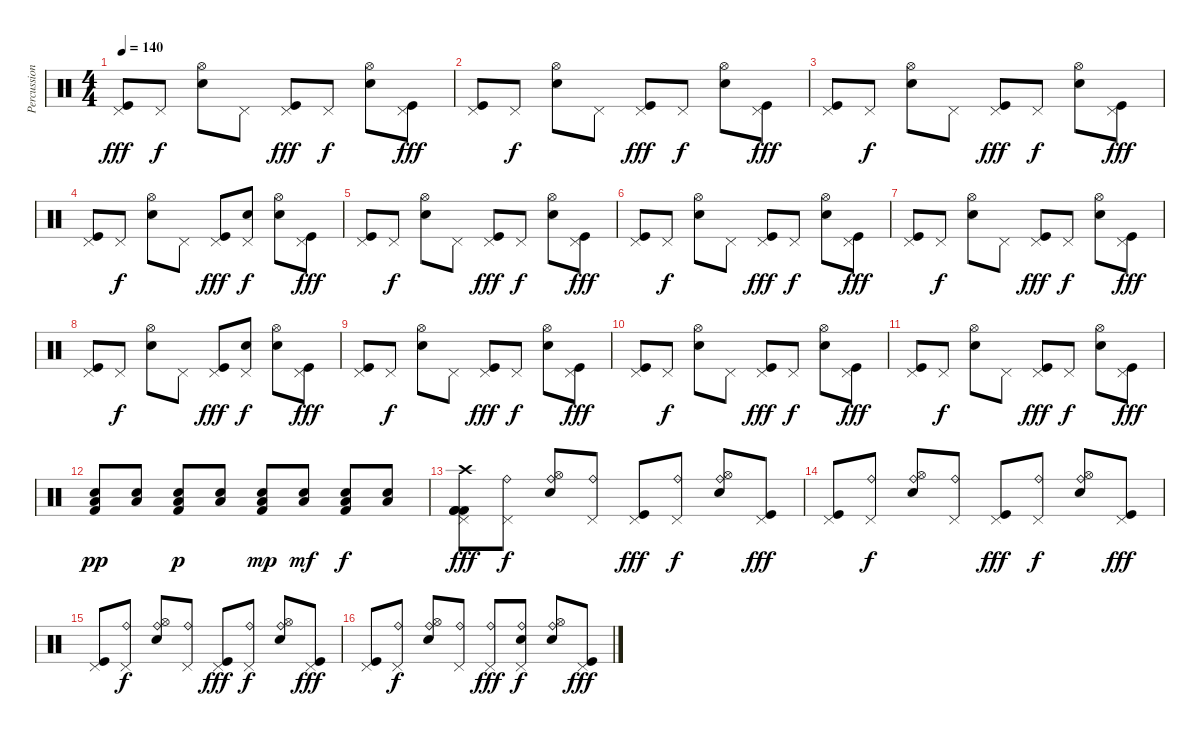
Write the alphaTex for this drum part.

\track ("Percussion" "Percussion") {instrument percussion}
\staff {score}
\articulation defaults
\ts (4 4)
\tempo 140
\clef neutral
\ks c
("Kick (hit)" "Pedal Hi-Hat (hit)").8{dy fff} "Pedal Hi-Hat (hit)".8{dy f} ("Metronome (bell)" "Hi-Hat (open)").8 "Pedal Hi-Hat (hit)".8 ("Kick (hit)" "Pedal Hi-Hat (hit)").8{dy fff} "Pedal Hi-Hat (hit)".8{dy f} ("Metronome (bell)" "Hi-Hat (open)").8 ("Kick (hit)" "Pedal Hi-Hat (hit)").8{dy fff} |
("Kick (hit)" "Pedal Hi-Hat (hit)").8 "Pedal Hi-Hat (hit)".8{dy f} ("Metronome (bell)" "Hi-Hat (open)").8 "Pedal Hi-Hat (hit)".8 ("Kick (hit)" "Pedal Hi-Hat (hit)").8{dy fff} "Pedal Hi-Hat (hit)".8{dy f} ("Metronome (bell)" "Hi-Hat (open)").8 ("Kick (hit)" "Pedal Hi-Hat (hit)").8{dy fff} |
("Kick (hit)" "Pedal Hi-Hat (hit)").8 "Pedal Hi-Hat (hit)".8{dy f} ("Metronome (bell)" "Hi-Hat (open)").8 "Pedal Hi-Hat (hit)".8 ("Kick (hit)" "Pedal Hi-Hat (hit)").8{dy fff} "Pedal Hi-Hat (hit)".8{dy f} ("Metronome (bell)" "Hi-Hat (open)").8 ("Kick (hit)" "Pedal Hi-Hat (hit)").8{dy fff} |
("Kick (hit)" "Pedal Hi-Hat (hit)").8 "Pedal Hi-Hat (hit)".8{dy f} ("Metronome (bell)" "Hi-Hat (open)").8 "Pedal Hi-Hat (hit)".8 ("Kick (hit)" "Pedal Hi-Hat (hit)").8{dy fff} ("Metronome (bell)" "Pedal Hi-Hat (hit)").8{dy f} ("Metronome (bell)" "Hi-Hat (open)").8 ("Kick (hit)" "Pedal Hi-Hat (hit)").8{dy fff} |
("Kick (hit)" "Pedal Hi-Hat (hit)").8 "Pedal Hi-Hat (hit)".8{dy f} ("Metronome (bell)" "Hi-Hat (open)").8 "Pedal Hi-Hat (hit)".8 ("Kick (hit)" "Pedal Hi-Hat (hit)").8{dy fff} "Pedal Hi-Hat (hit)".8{dy f} ("Metronome (bell)" "Hi-Hat (open)").8 ("Kick (hit)" "Pedal Hi-Hat (hit)").8{dy fff} |
("Kick (hit)" "Pedal Hi-Hat (hit)").8 "Pedal Hi-Hat (hit)".8{dy f} ("Metronome (bell)" "Hi-Hat (open)").8 "Pedal Hi-Hat (hit)".8 ("Kick (hit)" "Pedal Hi-Hat (hit)").8{dy fff} "Pedal Hi-Hat (hit)".8{dy f} ("Metronome (bell)" "Hi-Hat (open)").8 ("Kick (hit)" "Pedal Hi-Hat (hit)").8{dy fff} |
("Kick (hit)" "Pedal Hi-Hat (hit)").8 "Pedal Hi-Hat (hit)".8{dy f} ("Metronome (bell)" "Hi-Hat (open)").8 "Pedal Hi-Hat (hit)".8 ("Kick (hit)" "Pedal Hi-Hat (hit)").8{dy fff} "Pedal Hi-Hat (hit)".8{dy f} ("Metronome (bell)" "Hi-Hat (open)").8 ("Kick (hit)" "Pedal Hi-Hat (hit)").8{dy fff} |
("Kick (hit)" "Pedal Hi-Hat (hit)").8 "Pedal Hi-Hat (hit)".8{dy f} ("Metronome (bell)" "Hi-Hat (open)").8 "Pedal Hi-Hat (hit)".8 ("Kick (hit)" "Pedal Hi-Hat (hit)").8{dy fff} ("Metronome (bell)" "Pedal Hi-Hat (hit)").8{dy f} ("Metronome (bell)" "Hi-Hat (open)").8 ("Kick (hit)" "Pedal Hi-Hat (hit)").8{dy fff} |
("Kick (hit)" "Pedal Hi-Hat (hit)").8 "Pedal Hi-Hat (hit)".8{dy f} ("Metronome (bell)" "Hi-Hat (open)").8 "Pedal Hi-Hat (hit)".8 ("Kick (hit)" "Pedal Hi-Hat (hit)").8{dy fff} "Pedal Hi-Hat (hit)".8{dy f} ("Metronome (bell)" "Hi-Hat (open)").8 ("Kick (hit)" "Pedal Hi-Hat (hit)").8{dy fff} |
("Kick (hit)" "Pedal Hi-Hat (hit)").8 "Pedal Hi-Hat (hit)".8{dy f} ("Metronome (bell)" "Hi-Hat (open)").8 "Pedal Hi-Hat (hit)".8 ("Kick (hit)" "Pedal Hi-Hat (hit)").8{dy fff} "Pedal Hi-Hat (hit)".8{dy f} ("Metronome (bell)" "Hi-Hat (open)").8 ("Kick (hit)" "Pedal Hi-Hat (hit)").8{dy fff} |
("Kick (hit)" "Pedal Hi-Hat (hit)").8 "Pedal Hi-Hat (hit)".8{dy f} ("Metronome (bell)" "Hi-Hat (open)").8 "Pedal Hi-Hat (hit)".8 ("Kick (hit)" "Pedal Hi-Hat (hit)").8{dy fff} "Pedal Hi-Hat (hit)".8{dy f} ("Metronome (bell)" "Hi-Hat (open)").8 ("Kick (hit)" "Pedal Hi-Hat (hit)").8{dy fff} |
("Snare (hit) 2" "Low Tom (hit)" "Kick (hit) 2").8{dy pp} ("Snare (hit) 2" "Low Tom (hit)").8 ("Snare (hit) 2" "Low Tom (hit)" "Kick (hit) 2").8{dy p} ("Snare (hit) 2" "Low Tom (hit)").8 ("Snare (hit) 2" "Low Tom (hit)" "Kick (hit) 2").8{dy mp} ("Snare (hit) 2" "Low Tom (hit)").8{dy mf} ("Snare (hit) 2" "Low Tom (hit)" "Kick (hit) 2").8{dy f} ("Snare (hit) 2" "Low Tom (hit)").8 |
("Crash high (hit)" "Pedal Hi-Hat (hit)" "Kick (hit) 2" "Kick (hit) 2" "Kick (hit) 2").8{dy fff} ("Ride (bell)" "Pedal Hi-Hat (hit)").8{dy f} ("Ride (bell)" "Metronome (bell)" "Hi-Hat (open)").8 ("Ride (bell)" "Pedal Hi-Hat (hit)").8 ("Kick (hit)" "Pedal Hi-Hat (hit)").8{dy fff} ("Ride (bell)" "Pedal Hi-Hat (hit)").8{dy f} ("Ride (bell)" "Metronome (bell)" "Hi-Hat (open)").8 ("Kick (hit)" "Pedal Hi-Hat (hit)").8{dy fff} |
("Kick (hit)" "Pedal Hi-Hat (hit)").8 ("Ride (bell)" "Pedal Hi-Hat (hit)").8{dy f} ("Ride (bell)" "Metronome (bell)" "Hi-Hat (open)").8 ("Ride (bell)" "Pedal Hi-Hat (hit)").8 ("Kick (hit)" "Pedal Hi-Hat (hit)").8{dy fff} ("Ride (bell)" "Pedal Hi-Hat (hit)").8{dy f} ("Ride (bell)" "Metronome (bell)" "Hi-Hat (open)").8 ("Kick (hit)" "Pedal Hi-Hat (hit)").8{dy fff} |
("Kick (hit)" "Pedal Hi-Hat (hit)").8 ("Ride (bell)" "Pedal Hi-Hat (hit)").8{dy f} ("Ride (bell)" "Metronome (bell)" "Hi-Hat (open)").8 ("Ride (bell)" "Pedal Hi-Hat (hit)").8 ("Kick (hit)" "Pedal Hi-Hat (hit)").8{dy fff} ("Ride (bell)" "Pedal Hi-Hat (hit)").8{dy f} ("Ride (bell)" "Metronome (bell)" "Hi-Hat (open)").8 ("Kick (hit)" "Pedal Hi-Hat (hit)").8{dy fff} |
("Kick (hit)" "Pedal Hi-Hat (hit)").8 ("Ride (bell)" "Pedal Hi-Hat (hit)").8{dy f} ("Ride (bell)" "Metronome (bell)" "Hi-Hat (open)").8 ("Ride (bell)" "Pedal Hi-Hat (hit)").8 ("Ride (bell)" "Pedal Hi-Hat (hit)").8{dy fff} ("Ride (bell)" "Metronome (bell)" "Pedal Hi-Hat (hit)").8{dy f} ("Ride (bell)" "Metronome (bell)" "Hi-Hat (open)").8 ("Kick (hit)" "Pedal Hi-Hat (hit)").8{dy fff}
